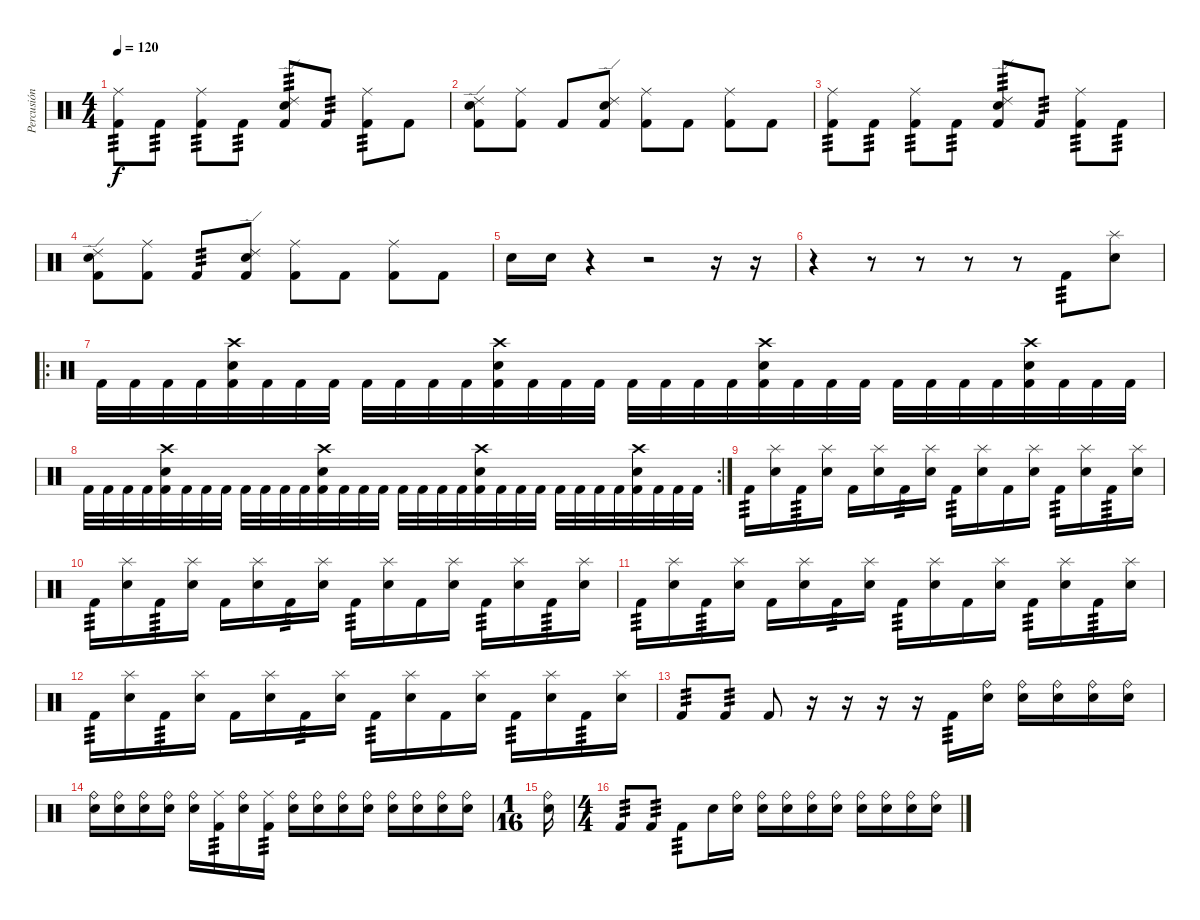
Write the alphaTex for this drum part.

\track ("Percusión" "Percusión") {instrument percussion}
\staff {score}
\articulation defaults
\ts (4 4)
\tempo 120
\clef neutral
\ks c
("Kick (hit) 2" "Ride (middle)").8{tp 3 dy f} "Kick (hit) 2".8{tp 3} ("Kick (hit) 2" "Ride (middle)").8{tp 3} "Kick (hit) 2".8{tp 3} ("Kick (hit) 2" "Ride (edge) 2" "Electric Snare (hit)").8{tp 3} "Kick (hit) 2".8{tp 3} ("Kick (hit) 2" "Ride (middle)").8{tp 3} "Kick (hit) 2".8 |
("Kick (hit) 2" "Ride (edge) 2" "Electric Snare (hit)").8 ("Kick (hit) 2" "Ride (middle)").8 "Kick (hit) 2".8 ("Kick (hit) 2" "Ride (edge) 2" "Electric Snare (hit)").8 ("Kick (hit) 2" "Ride (middle)").8 "Kick (hit) 2".8 ("Kick (hit) 2" "Ride (middle)").8 "Kick (hit) 2".8 |
("Kick (hit) 2" "Ride (middle)").8{tp 3} "Kick (hit) 2".8{tp 3} ("Kick (hit) 2" "Ride (middle)").8{tp 3} "Kick (hit) 2".8{tp 3} ("Kick (hit) 2" "Ride (edge) 2" "Electric Snare (hit)").8{tp 3} "Kick (hit) 2".8{tp 3} ("Kick (hit) 2" "Ride (middle)").8{tp 3} "Kick (hit) 2".8{tp 3} |
("Kick (hit) 2" "Ride (edge) 2" "Electric Snare (hit)").8 ("Kick (hit) 2" "Ride (middle)").8 "Kick (hit) 2".8{tp 3} ("Kick (hit) 2" "Ride (edge) 2" "Electric Snare (hit)").8 ("Kick (hit) 2" "Ride (middle)").8 "Kick (hit) 2".8 ("Kick (hit) 2" "Ride (middle)").8 "Kick (hit) 2".8 |
"Electric Snare (hit)".16 "Electric Snare (hit)".16 r.4 r.2 r.16 r.16 |
r.4 r.8 r.8 r.8 r.8 "Kick (hit) 2".8{tp 3} ("Electric Snare (hit)" "Splash (hit)").8 |
\ro "Kick (hit) 2".32 "Kick (hit) 2".32 "Kick (hit) 2".32 "Kick (hit) 2".32
("Kick (hit) 2" "Electric Snare (hit)" "Crash high (hit)").32 "Kick (hit) 2".32 "Kick (hit) 2".32 "Kick (hit) 2".32 "Kick (hit) 2".32 "Kick (hit) 2".32 "Kick (hit) 2".32 "Kick (hit) 2".32 ("Kick (hit) 2" "Electric Snare (hit)" "Crash high (hit)").32 "Kick (hit) 2".32 "Kick (hit) 2".32 "Kick (hit) 2".32 "Kick (hit) 2".32 "Kick (hit) 2".32 "Kick (hit) 2".32 "Kick (hit) 2".32 ("Kick (hit) 2" "Electric Snare (hit)" "Crash high (hit)").32 "Kick (hit) 2".32 "Kick (hit) 2".32 "Kick (hit) 2".32 "Kick (hit) 2".32 "Kick (hit) 2".32 "Kick (hit) 2".32 "Kick (hit) 2".32 ("Kick (hit) 2" "Electric Snare (hit)" "Crash high (hit)").32 "Kick (hit) 2".32 "Kick (hit) 2".32 "Kick (hit) 2".32 |
\rc 2 "Kick (hit) 2".32 "Kick (hit) 2".32 "Kick (hit) 2".32 "Kick (hit) 2".32
("Kick (hit) 2" "Electric Snare (hit)" "Crash high (hit)").32 "Kick (hit) 2".32 "Kick (hit) 2".32 "Kick (hit) 2".32 "Kick (hit) 2".32 "Kick (hit) 2".32 "Kick (hit) 2".32 "Kick (hit) 2".32 ("Kick (hit) 2" "Electric Snare (hit)" "Crash high (hit)").32 "Kick (hit) 2".32 "Kick (hit) 2".32 "Kick (hit) 2".32 "Kick (hit) 2".32 "Kick (hit) 2".32 "Kick (hit) 2".32 "Kick (hit) 2".32 ("Kick (hit) 2" "Electric Snare (hit)" "Crash high (hit)").32 "Kick (hit) 2".32 "Kick (hit) 2".32 "Kick (hit) 2".32 "Kick (hit) 2".32 "Kick (hit) 2".32 "Kick (hit) 2".32 "Kick (hit) 2".32 ("Kick (hit) 2" "Electric Snare (hit)" "Crash high (hit)").32 "Kick (hit) 2".32 "Kick (hit) 2".32 "Kick (hit) 2".32 |
"Kick (hit) 2".16{tp 3} ("Electric Snare (hit)" "Splash (hit)").16 "Kick (hit) 2".16{tp 3} ("Electric Snare (hit)" "Splash (hit)").16 "Kick (hit) 2".16 ("Electric Snare (hit)" "Splash (hit)").16 "Kick (hit) 2".16{tp 3} ("Electric Snare (hit)" "Splash (hit)").16 "Kick (hit) 2".16{tp 3} ("Electric Snare (hit)" "Splash (hit)").16 "Kick (hit) 2".16 ("Electric Snare (hit)" "Splash (hit)").16 "Kick (hit) 2".16{tp 3} ("Electric Snare (hit)" "Splash (hit)").16 "Kick (hit) 2".16{tp 3} ("Electric Snare (hit)" "Splash (hit)").16 |
"Kick (hit) 2".16{tp 3} ("Electric Snare (hit)" "Splash (hit)").16 "Kick (hit) 2".16{tp 3} ("Electric Snare (hit)" "Splash (hit)").16 "Kick (hit) 2".16 ("Electric Snare (hit)" "Splash (hit)").16 "Kick (hit) 2".16{tp 3} ("Electric Snare (hit)" "Splash (hit)").16 "Kick (hit) 2".16{tp 3} ("Electric Snare (hit)" "Splash (hit)").16 "Kick (hit) 2".16 ("Electric Snare (hit)" "Splash (hit)").16 "Kick (hit) 2".16{tp 3} ("Electric Snare (hit)" "Splash (hit)").16 "Kick (hit) 2".16{tp 3} ("Electric Snare (hit)" "Splash (hit)").16 |
"Kick (hit) 2".16{tp 3} ("Electric Snare (hit)" "Splash (hit)").16 "Kick (hit) 2".16{tp 3} ("Electric Snare (hit)" "Splash (hit)").16 "Kick (hit) 2".16 ("Electric Snare (hit)" "Splash (hit)").16 "Kick (hit) 2".16{tp 3} ("Electric Snare (hit)" "Splash (hit)").16 "Kick (hit) 2".16{tp 3} ("Electric Snare (hit)" "Splash (hit)").16 "Kick (hit) 2".16 ("Electric Snare (hit)" "Splash (hit)").16 "Kick (hit) 2".16{tp 3} ("Electric Snare (hit)" "Splash (hit)").16 "Kick (hit) 2".16{tp 3} ("Electric Snare (hit)" "Splash (hit)").16 |
"Kick (hit) 2".16{tp 3} ("Electric Snare (hit)" "Splash (hit)").16 "Kick (hit) 2".16{tp 3} ("Electric Snare (hit)" "Splash (hit)").16 "Kick (hit) 2".16 ("Electric Snare (hit)" "Splash (hit)").16 "Kick (hit) 2".16{tp 3} ("Electric Snare (hit)" "Splash (hit)").16 "Kick (hit) 2".16{tp 3} ("Electric Snare (hit)" "Splash (hit)").16 "Kick (hit) 2".16 ("Electric Snare (hit)" "Splash (hit)").16 "Kick (hit) 2".16{tp 3} ("Electric Snare (hit)" "Splash (hit)").16 "Kick (hit) 2".16{tp 3} ("Electric Snare (hit)" "Splash (hit)").16 |
"Kick (hit) 2".8{tp 3} "Kick (hit) 2".8{tp 3} "Kick (hit) 2".8 r.16 r.16 r.16 r.16 "Kick (hit) 2".16{tp 3} ("Electric Snare (hit)" "Ride (bell)").16 ("Electric Snare (hit)" "Ride (bell)").16 ("Electric Snare (hit)" "Ride (bell)").16 ("Electric Snare (hit)" "Ride (bell)").16 ("Electric Snare (hit)" "Ride (bell)").16 |
("Electric Snare (hit)" "Ride (bell)").16 ("Electric Snare (hit)" "Ride (bell)").16 ("Electric Snare (hit)" "Ride (bell)").16 ("Electric Snare (hit)" "Ride (bell)").16 ("Electric Snare (hit)" "Ride (bell)").16 ("Kick (hit) 2" "Ride (middle)").16{tp 3} ("Electric Snare (hit)" "Ride (bell)").16 ("Kick (hit) 2" "Ride (middle)").16{tp 3} ("Electric Snare (hit)" "Ride (bell)").16 ("Electric Snare (hit)" "Ride (bell)").16 ("Electric Snare (hit)" "Ride (bell)").16 ("Electric Snare (hit)" "Ride (bell)").16 ("Electric Snare (hit)" "Ride (bell)").16 ("Electric Snare (hit)" "Ride (bell)").16 ("Electric Snare (hit)" "Ride (bell)").16 ("Electric Snare (hit)" "Ride (bell)").16 |
\ts (1 16)
("Electric Snare (hit)" "Ride (bell)").16 |
\ts (4 4)
"Kick (hit) 2".8{tp 3} "Kick (hit) 2".8{tp 3} "Kick (hit) 2".8{tp 3} "Electric Snare (hit)".16 ("Electric Snare (hit)" "Ride (bell)").16 ("Electric Snare (hit)" "Ride (bell)").16 ("Electric Snare (hit)" "Ride (bell)").16 ("Electric Snare (hit)" "Ride (bell)").16 ("Electric Snare (hit)" "Ride (bell)").16 ("Electric Snare (hit)" "Ride (bell)").16 ("Electric Snare (hit)" "Ride (bell)").16 ("Electric Snare (hit)" "Ride (bell)").16 ("Electric Snare (hit)" "Ride (bell)").16
